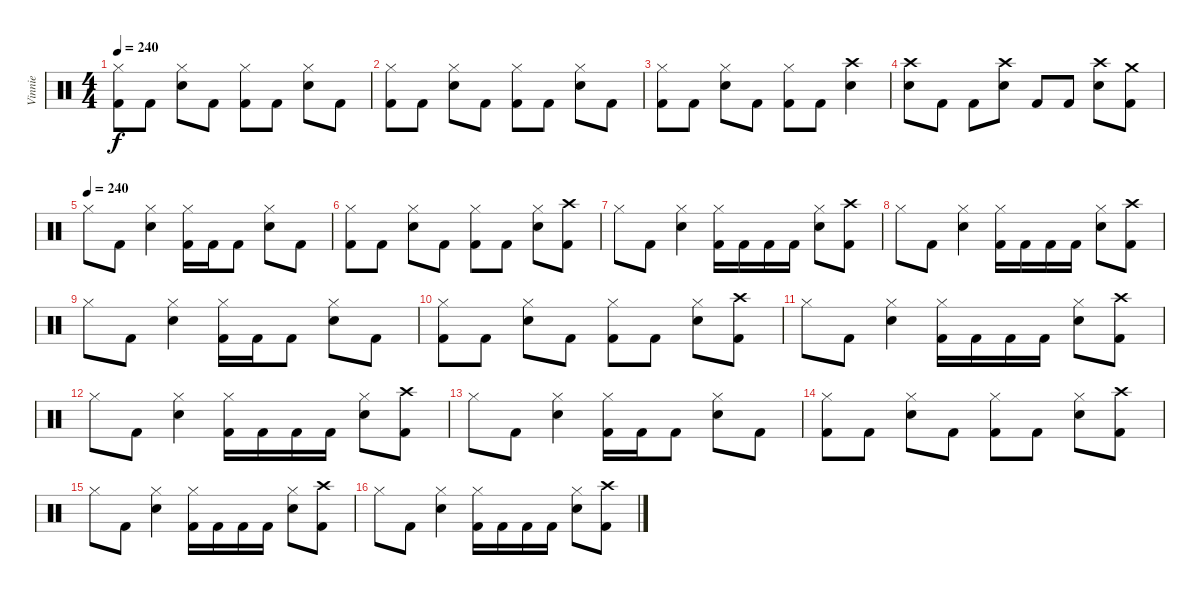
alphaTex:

\track ("Vinnie" "Vinnie") {instrument percussion}
\staff {score}
\articulation defaults
\ts (4 4)
\tempo 240
\clef neutral
\ks c
("Hi-Hat (closed)" "Kick (hit) 2").8{dy f} "Kick (hit) 2".8 ("Hi-Hat (closed)" "Electric Snare (hit)").8 "Kick (hit) 2".8 ("Hi-Hat (closed)" "Kick (hit) 2").8 "Kick (hit) 2".8 ("Hi-Hat (closed)" "Electric Snare (hit)").8 "Kick (hit) 2".8 |
("Hi-Hat (closed)" "Kick (hit) 2").8 "Kick (hit) 2".8 ("Hi-Hat (closed)" "Electric Snare (hit)").8 "Kick (hit) 2".8 ("Hi-Hat (closed)" "Kick (hit) 2").8 "Kick (hit) 2".8 ("Hi-Hat (closed)" "Electric Snare (hit)").8 "Kick (hit) 2".8 |
("Hi-Hat (closed)" "Kick (hit) 2").8 "Kick (hit) 2".8 ("Hi-Hat (closed)" "Electric Snare (hit)").8 "Kick (hit) 2".8 ("Hi-Hat (closed)" "Kick (hit) 2").8 "Kick (hit) 2".8 ("Crash high (hit)" "Electric Snare (hit)").4 |
("Crash high (hit)" "Electric Snare (hit)").8 "Kick (hit) 2".8 "Kick (hit) 2".8 ("Crash high (hit)" "Electric Snare (hit)").8 "Kick (hit) 2".8 "Kick (hit) 2".8 ("Crash high (hit)" "Electric Snare (hit)").8 ("Crash medium (hit)" "Kick (hit) 2").8 |
\tempo (240)
"Hi-Hat (closed)".8 "Kick (hit) 2".8 ("Hi-Hat (closed)" "Electric Snare (hit)").4 ("Hi-Hat (closed)" "Kick (hit) 2").16 "Kick (hit) 2".16 "Kick (hit) 2".8 ("Hi-Hat (closed)" "Electric Snare (hit)").8 "Kick (hit) 2".8 |
("Hi-Hat (closed)" "Kick (hit) 2").8 "Kick (hit) 2".8 ("Hi-Hat (closed)" "Electric Snare (hit)").8 "Kick (hit) 2".8 ("Hi-Hat (closed)" "Kick (hit) 2").8 "Kick (hit) 2".8 ("Hi-Hat (closed)" "Electric Snare (hit)").8 ("Crash high (hit)" "Kick (hit) 2").8 |
"Hi-Hat (closed)".8 "Kick (hit) 2".8 ("Hi-Hat (closed)" "Electric Snare (hit)").4 ("Hi-Hat (closed)" "Kick (hit) 2").16 "Kick (hit) 2".16 "Kick (hit) 2".16 "Kick (hit) 2".16 ("Hi-Hat (closed)" "Electric Snare (hit)").8 ("Crash high (hit)" "Kick (hit) 2").8 |
"Hi-Hat (closed)".8 "Kick (hit) 2".8 ("Hi-Hat (closed)" "Electric Snare (hit)").4 ("Hi-Hat (closed)" "Kick (hit) 2").16 "Kick (hit) 2".16 "Kick (hit) 2".16 "Kick (hit) 2".16 ("Hi-Hat (closed)" "Electric Snare (hit)").8 ("Crash high (hit)" "Kick (hit) 2").8 |
"Hi-Hat (closed)".8 "Kick (hit) 2".8 ("Hi-Hat (closed)" "Electric Snare (hit)").4 ("Hi-Hat (closed)" "Kick (hit) 2").16 "Kick (hit) 2".16 "Kick (hit) 2".8 ("Hi-Hat (closed)" "Electric Snare (hit)").8 "Kick (hit) 2".8 |
("Hi-Hat (closed)" "Kick (hit) 2").8 "Kick (hit) 2".8 ("Hi-Hat (closed)" "Electric Snare (hit)").8 "Kick (hit) 2".8 ("Hi-Hat (closed)" "Kick (hit) 2").8 "Kick (hit) 2".8 ("Hi-Hat (closed)" "Electric Snare (hit)").8 ("Crash high (hit)" "Kick (hit) 2").8 |
"Hi-Hat (closed)".8 "Kick (hit) 2".8 ("Hi-Hat (closed)" "Electric Snare (hit)").4 ("Hi-Hat (closed)" "Kick (hit) 2").16 "Kick (hit) 2".16 "Kick (hit) 2".16 "Kick (hit) 2".16 ("Hi-Hat (closed)" "Electric Snare (hit)").8 ("Crash high (hit)" "Kick (hit) 2").8 |
"Hi-Hat (closed)".8 "Kick (hit) 2".8 ("Hi-Hat (closed)" "Electric Snare (hit)").4 ("Hi-Hat (closed)" "Kick (hit) 2").16 "Kick (hit) 2".16 "Kick (hit) 2".16 "Kick (hit) 2".16 ("Hi-Hat (closed)" "Electric Snare (hit)").8 ("Crash high (hit)" "Kick (hit) 2").8 |
"Hi-Hat (closed)".8 "Kick (hit) 2".8 ("Hi-Hat (closed)" "Electric Snare (hit)").4 ("Hi-Hat (closed)" "Kick (hit) 2").16 "Kick (hit) 2".16 "Kick (hit) 2".8 ("Hi-Hat (closed)" "Electric Snare (hit)").8 "Kick (hit) 2".8 |
("Hi-Hat (closed)" "Kick (hit) 2").8 "Kick (hit) 2".8 ("Hi-Hat (closed)" "Electric Snare (hit)").8 "Kick (hit) 2".8 ("Hi-Hat (closed)" "Kick (hit) 2").8 "Kick (hit) 2".8 ("Hi-Hat (closed)" "Electric Snare (hit)").8 ("Crash high (hit)" "Kick (hit) 2").8 |
"Hi-Hat (closed)".8 "Kick (hit) 2".8 ("Hi-Hat (closed)" "Electric Snare (hit)").4 ("Hi-Hat (closed)" "Kick (hit) 2").16 "Kick (hit) 2".16 "Kick (hit) 2".16 "Kick (hit) 2".16 ("Hi-Hat (closed)" "Electric Snare (hit)").8 ("Crash high (hit)" "Kick (hit) 2").8 |
"Hi-Hat (closed)".8 "Kick (hit) 2".8 ("Hi-Hat (closed)" "Electric Snare (hit)").4 ("Hi-Hat (closed)" "Kick (hit) 2").16 "Kick (hit) 2".16 "Kick (hit) 2".16 "Kick (hit) 2".16 ("Hi-Hat (closed)" "Electric Snare (hit)").8 ("Crash high (hit)" "Kick (hit) 2").8
